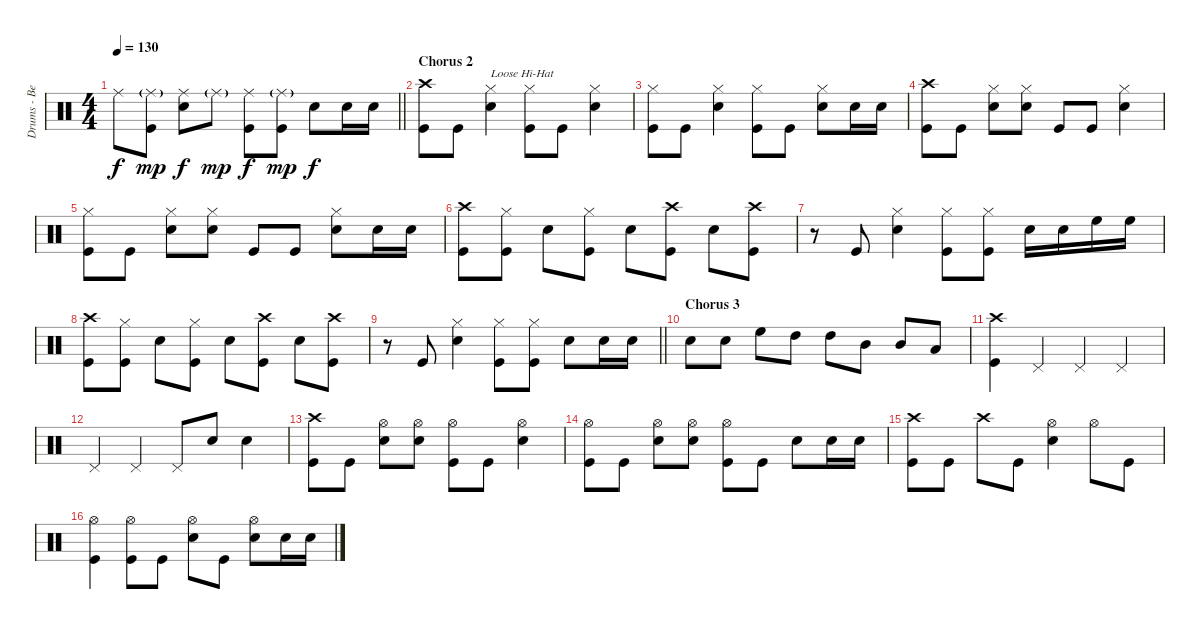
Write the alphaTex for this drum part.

\track ("Drums - Ben Johnston" "Drums - Be") {instrument percussion}
\staff {score}
\articulation defaults
\ts (4 4)
\tempo 130
\clef neutral
\barLineRight lightlight
\ks c "Ride (middle)".8{dy f}
("Ride (middle)"{g} "Kick (hit)").8{dy mp} ("Ride (middle)" "Snare (hit) 2").8{dy f} "Ride (middle)"{g}.8{dy mp} ("Ride (middle)" "Kick (hit)").8{dy f} ("Ride (middle)"{g} "Kick (hit)").8{dy mp} "Snare (hit) 2".8{dy f} "Snare (hit) 2".16 "Snare (hit) 2".16 |
\section ("" "Chorus 2")
("Crash high (hit)" "Kick (hit)").8 "Kick (hit)".8 ("Hi-Hat (closed)" "Snare (hit) 2").4{txt "Loose Hi-Hat"} ("Hi-Hat (closed)" "Kick (hit)").8 "Kick (hit)".8 ("Hi-Hat (closed)" "Snare (hit) 2").4 |
("Hi-Hat (closed)" "Kick (hit)").8 "Kick (hit)".8 ("Hi-Hat (closed)" "Snare (hit) 2").4 ("Hi-Hat (closed)" "Kick (hit)").8 "Kick (hit)".8 ("Hi-Hat (closed)" "Snare (hit) 2").8 "Snare (hit) 2".16 "Snare (hit) 2".16 |
("Crash high (hit)" "Kick (hit)").8 "Kick (hit)".8 ("Hi-Hat (closed)" "Snare (hit) 2").8 ("Hi-Hat (closed)" "Snare (hit) 2").8 "Kick (hit)".8 "Kick (hit)".8 ("Hi-Hat (closed)" "Snare (hit) 2").4 |
("Hi-Hat (closed)" "Kick (hit)").8 "Kick (hit)".8 ("Hi-Hat (closed)" "Snare (hit) 2").8 ("Hi-Hat (closed)" "Snare (hit) 2").8 "Kick (hit)".8 "Kick (hit)".8 ("Hi-Hat (closed)" "Snare (hit) 2").8 "Snare (hit) 2".16 "Snare (hit) 2".16 |
("Crash high (hit)" "Kick (hit)").8 ("Hi-Hat (closed)" "Kick (hit)").8 "Snare (hit) 2".8 ("Hi-Hat (closed)" "Kick (hit)").8 "Snare (hit) 2".8 ("Crash high (hit)" "Kick (hit)").8 "Snare (hit) 2".8 ("Crash high (hit)" "Kick (hit)").8 |
r.8 "Kick (hit)".8 ("Hi-Hat (closed)" "Snare (hit) 2").4 ("Hi-Hat (closed)" "Kick (hit)").8 ("Hi-Hat (closed)" "Kick (hit)").8 "Snare (hit) 2".16 "Snare (hit) 2".16 "High Floor Tom (hit)".16 "High Floor Tom (hit)".16 |
("Crash high (hit)" "Kick (hit)").8 ("Hi-Hat (closed)" "Kick (hit)").8 "Snare (hit) 2".8 ("Hi-Hat (closed)" "Kick (hit)").8 "Snare (hit) 2".8 ("Crash high (hit)" "Kick (hit)").8 "Snare (hit) 2".8 ("Crash high (hit)" "Kick (hit)").8 |
\barLineRight lightlight
r.8 "Kick (hit)".8 ("Hi-Hat (closed)" "Snare (hit) 2").4 ("Hi-Hat (closed)" "Kick (hit)").8 ("Hi-Hat (closed)" "Kick (hit)").8 "Snare (hit) 2".8 "Snare (hit) 2".16 "Snare (hit) 2".16 |
\section ("" "Chorus 3")
"Snare (hit) 2".8 "Snare (hit) 2".8 "High Floor Tom (hit)".8 "High Tom (hit)".8 "High Tom (hit)".8 "Mid Tom (hit)".8 "Mid Tom (hit)".8 "Low Tom (hit)".8 |
("Crash high (hit)" "Kick (hit)").4 "Pedal Hi-Hat (hit)".4 "Pedal Hi-Hat (hit)".4 "Pedal Hi-Hat (hit)".4 |
"Pedal Hi-Hat (hit)".4 "Pedal Hi-Hat (hit)".4 "Pedal Hi-Hat (hit)".8 "Snare (hit) 2".8{volume 16} "Snare (hit) 2".4 |
("Crash high (hit)" "Kick (hit)").8{volume 13} "Kick (hit)".8 ("Hi-Hat (open)" "Snare (hit) 2").8 ("Hi-Hat (open)" "Snare (hit) 2").8 ("Hi-Hat (open)" "Kick (hit)").8 "Kick (hit)".8 ("Hi-Hat (open)" "Snare (hit) 2").4 |
("Hi-Hat (open)" "Kick (hit)").8 "Kick (hit)".8 ("Hi-Hat (open)" "Snare (hit) 2").8 ("Hi-Hat (open)" "Snare (hit) 2").8 ("Hi-Hat (open)" "Kick (hit)").8 "Kick (hit)".8 "Snare (hit) 2".8 "Snare (hit) 2".16 "Snare (hit) 2".16 |
("Crash high (hit)" "Kick (hit)").8 "Kick (hit)".8 "Crash high (hit)".8 "Kick (hit)".8 ("Hi-Hat (open)" "Snare (hit) 2").4 "Hi-Hat (open)".8 "Kick (hit)".8 |
("Hi-Hat (open)" "Kick (hit)").4 ("Hi-Hat (open)" "Kick (hit)").8 "Kick (hit)".8 ("Hi-Hat (open)" "Snare (hit) 2").8 "Kick (hit)".8 ("Hi-Hat (open)" "Snare (hit) 2").8 "Snare (hit) 2".16 "Snare (hit) 2".16
